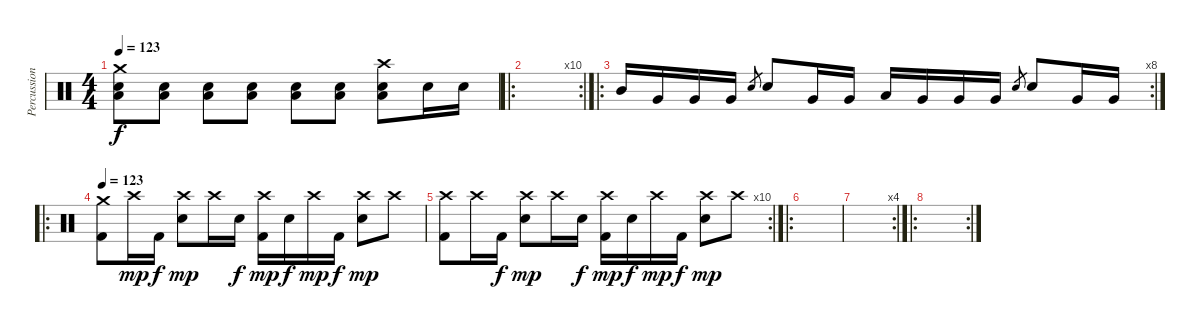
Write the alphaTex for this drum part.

\track ("Percussion" "Percussion") {instrument percussion}
\staff {score}
\articulation defaults
\ts (4 4)
\tempo 123
\clef neutral
\ks c
("Crash medium (hit)" "Snare (hit) 2" "Low Tom (hit)").8{dy f} ("Snare (hit) 2" "Low Tom (hit)").8 ("Snare (hit) 2" "Low Tom (hit)").8 ("Snare (hit) 2" "Low Tom (hit)").8 ("Snare (hit) 2" "Low Tom (hit)").8 ("Snare (hit) 2" "Low Tom (hit)").8 ("Crash high (hit)" "Snare (hit) 2" "Low Tom (hit)").8 "Snare (hit) 2".16 "Snare (hit) 2".16 |
\ro
\rc 10
|
\ro
\rc 8 "Mid Tom (hit)".16 "Very Low Tom (hit)".16 "Very Low Tom (hit)".16 "Very Low Tom (hit)".16 "Snare (hit) 2".8{gr} "Snare (hit) 2".8 "Very Low Tom (hit)".16 "Very Low Tom (hit)".16 "Low Tom (hit)".16 "Very Low Tom (hit)".16 "Very Low Tom (hit)".16 "Very Low Tom (hit)".16 "Snare (hit) 2".8{gr} "Snare (hit) 2".8 "Very Low Tom (hit)".16 "Very Low Tom (hit)".16
|
\ro
\tempo 123
("Crash medium (hit)" "Kick (hit) 2").8 "Crash high (hit)".16{dy mp} "Kick (hit) 2".16{dy f} ("Crash high (hit)" "Snare (hit) 2").8{dy mp} "Crash high (hit)".16 "Snare (hit) 2".16{dy f} ("Crash high (hit)" "Kick (hit) 2").16{dy mp} "Snare (hit) 2".16{dy f} "Crash high (hit)".16{dy mp} "Kick (hit) 2".16{dy f} ("Crash high (hit)" "Snare (hit) 2").8{dy mp} "Crash high (hit)".8 |
\rc 10
("Crash high (hit)" "Kick (hit) 2").8 "Crash high (hit)".16 "Kick (hit) 2".16{dy f} ("Crash high (hit)" "Snare (hit) 2").8{dy mp} "Crash high (hit)".16 "Snare (hit) 2".16{dy f} ("Crash high (hit)" "Kick (hit) 2").16{dy mp} "Snare (hit) 2".16{dy f} "Crash high (hit)".16{dy mp} "Kick (hit) 2".16{dy f} ("Crash high (hit)" "Snare (hit) 2").8{dy mp} "Crash high (hit)".8 |
\ro
|
\rc 4
|
\ro
\rc 2
